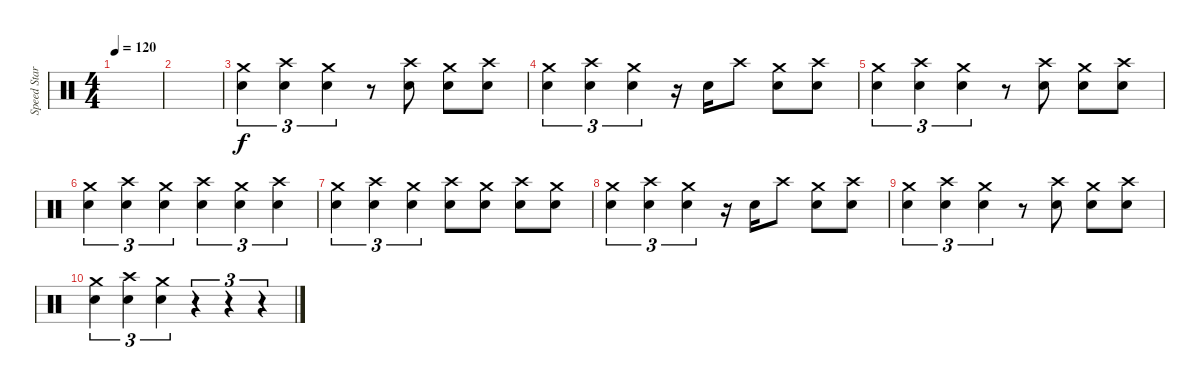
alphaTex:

\track ("Speed Star triolet" "Speed Star") {instrument percussion}
\staff {score}
\articulation defaults
\ts (4 4)
\tempo 120
\clef neutral
\ks c
|
|
("Snare (hit) 2" "Crash medium (hit)").4{tu (3 2)} ("Snare (hit) 2" "Crash high (hit)").4{tu (3 2)} ("Snare (hit) 2" "Crash medium (hit)").4{tu (3 2)} r.8 ("Snare (hit) 2" "Crash high (hit)").8 ("Snare (hit) 2" "Crash medium (hit)").8 ("Snare (hit) 2" "Crash high (hit)").8 |
("Snare (hit) 2" "Crash medium (hit)").4{tu (3 2)} ("Snare (hit) 2" "Crash high (hit)").4{tu (3 2)} ("Snare (hit) 2" "Crash medium (hit)").4{tu (3 2)} r.16 "Snare (hit) 2".16 "Crash high (hit)".8 ("Snare (hit) 2" "Crash medium (hit)").8 ("Snare (hit) 2" "Crash high (hit)").8 |
("Snare (hit) 2" "Crash medium (hit)").4{tu (3 2)} ("Snare (hit) 2" "Crash high (hit)").4{tu (3 2)} ("Snare (hit) 2" "Crash medium (hit)").4{tu (3 2)} r.8 ("Snare (hit) 2" "Crash high (hit)").8 ("Snare (hit) 2" "Crash medium (hit)").8 ("Snare (hit) 2" "Crash high (hit)").8 |
("Snare (hit) 2" "Crash medium (hit)").4{tu (3 2)} ("Snare (hit) 2" "Crash high (hit)").4{tu (3 2)} ("Snare (hit) 2" "Crash medium (hit)").4{tu (3 2)} ("Snare (hit) 2" "Crash high (hit)").4{tu (3 2)} ("Snare (hit) 2" "Crash medium (hit)").4{tu (3 2)} ("Snare (hit) 2" "Crash high (hit)").4{tu (3 2)} |
("Snare (hit) 2" "Crash medium (hit)").4{tu (3 2)} ("Snare (hit) 2" "Crash high (hit)").4{tu (3 2)} ("Snare (hit) 2" "Crash medium (hit)").4{tu (3 2)} ("Snare (hit) 2" "Crash high (hit)").8 ("Snare (hit) 2" "Crash medium (hit)").8 ("Snare (hit) 2" "Crash high (hit)").8 ("Snare (hit) 2" "Crash medium (hit)").8 |
("Snare (hit) 2" "Crash medium (hit)").4{tu (3 2)} ("Snare (hit) 2" "Crash high (hit)").4{tu (3 2)} ("Snare (hit) 2" "Crash medium (hit)").4{tu (3 2)} r.16 "Snare (hit) 2".16 "Crash high (hit)".8 ("Snare (hit) 2" "Crash medium (hit)").8 ("Snare (hit) 2" "Crash high (hit)").8 |
("Snare (hit) 2" "Crash medium (hit)").4{tu (3 2)} ("Snare (hit) 2" "Crash high (hit)").4{tu (3 2)} ("Snare (hit) 2" "Crash medium (hit)").4{tu (3 2)} r.8 ("Snare (hit) 2" "Crash high (hit)").8 ("Snare (hit) 2" "Crash medium (hit)").8 ("Snare (hit) 2" "Crash high (hit)").8 |
("Snare (hit) 2" "Crash medium (hit)").4{tu (3 2)} ("Snare (hit) 2" "Crash high (hit)").4{tu (3 2)} ("Snare (hit) 2" "Crash medium (hit)").4{tu (3 2)} r.4{tu (3 2)} r.4{tu (3 2)} r.4{tu (3 2)}
